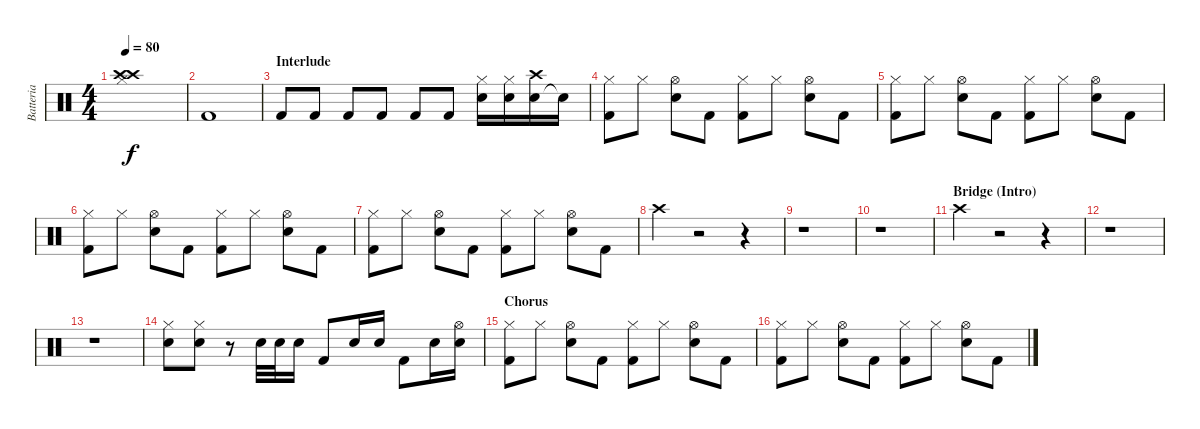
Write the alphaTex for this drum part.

\track ("Batteria" "Batteria") {instrument percussion}
\staff {score}
\articulation defaults
\ts (4 4)
\tempo 80
\clef neutral
\ks c
("Crash high (hit)" "Hi-Hat (closed)" "Crash high (hit)").1{dy f} |
"Kick (hit) 2".1 |
\section ("" "Interlude")
"Kick (hit) 2".8 "Kick (hit) 2".8 "Kick (hit) 2".8 "Kick (hit) 2".8 "Kick (hit) 2".8 "Kick (hit) 2".8 ("Electric Snare (hit)" "Hi-Hat (closed)").16 ("Electric Snare (hit)" "Hi-Hat (closed)").16 ("Electric Snare (hit)" "Crash high (hit)").16 "Snare (hit)"{t}.16 |
("Kick (hit) 2" "Hi-Hat (closed)").8 "Hi-Hat (closed)".8 ("Electric Snare (hit)" "Hi-Hat (open)").8 "Kick (hit) 2".8 ("Kick (hit) 2" "Hi-Hat (closed)").8 "Hi-Hat (closed)".8 ("Electric Snare (hit)" "Hi-Hat (open)").8 "Kick (hit) 2".8 |
("Kick (hit) 2" "Hi-Hat (closed)").8 "Hi-Hat (closed)".8 ("Electric Snare (hit)" "Hi-Hat (open)").8 "Kick (hit) 2".8 ("Kick (hit) 2" "Hi-Hat (closed)").8 "Hi-Hat (closed)".8 ("Electric Snare (hit)" "Hi-Hat (open)").8 "Kick (hit) 2".8 |
("Kick (hit) 2" "Hi-Hat (closed)").8 "Hi-Hat (closed)".8 ("Electric Snare (hit)" "Hi-Hat (open)").8 "Kick (hit) 2".8 ("Kick (hit) 2" "Hi-Hat (closed)").8 "Hi-Hat (closed)".8 ("Electric Snare (hit)" "Hi-Hat (open)").8 "Kick (hit) 2".8 |
("Kick (hit) 2" "Hi-Hat (closed)").8 "Hi-Hat (closed)".8 ("Electric Snare (hit)" "Hi-Hat (open)").8 "Kick (hit) 2".8 ("Kick (hit) 2" "Hi-Hat (closed)").8 "Hi-Hat (closed)".8 ("Electric Snare (hit)" "Hi-Hat (open)").8 "Kick (hit) 2".8 |
"Crash high (hit)".4 r.2 r.4 |
r.1 |
r.1 |
\section ("" "Bridge (Intro)")
"Crash high (hit)".4 r.2 r.4 |
r.1 |
r.1 |
("Electric Snare (hit)" "Hi-Hat (closed)").8 ("Electric Snare (hit)" "Hi-Hat (closed)").8 r.8 "Electric Snare (hit)".32 "Electric Snare (hit)".32 "Electric Snare (hit)".16 "Kick (hit) 2".8 "Electric Snare (hit)".16 "Electric Snare (hit)".16 "Kick (hit) 2".8 "Electric Snare (hit)".16 ("Electric Snare (hit)" "Hi-Hat (open)").16 |
\section ("" "Chorus")
("Kick (hit) 2" "Hi-Hat (closed)").8 "Hi-Hat (closed)".8 ("Electric Snare (hit)" "Hi-Hat (open)").8 "Kick (hit) 2".8 ("Kick (hit) 2" "Hi-Hat (closed)").8 "Hi-Hat (closed)".8 ("Electric Snare (hit)" "Hi-Hat (open)").8 "Kick (hit) 2".8 |
("Kick (hit) 2" "Hi-Hat (closed)").8 "Hi-Hat (closed)".8 ("Electric Snare (hit)" "Hi-Hat (open)").8 "Kick (hit) 2".8 ("Kick (hit) 2" "Hi-Hat (closed)").8 "Hi-Hat (closed)".8 ("Electric Snare (hit)" "Hi-Hat (open)").8 "Kick (hit) 2".8
